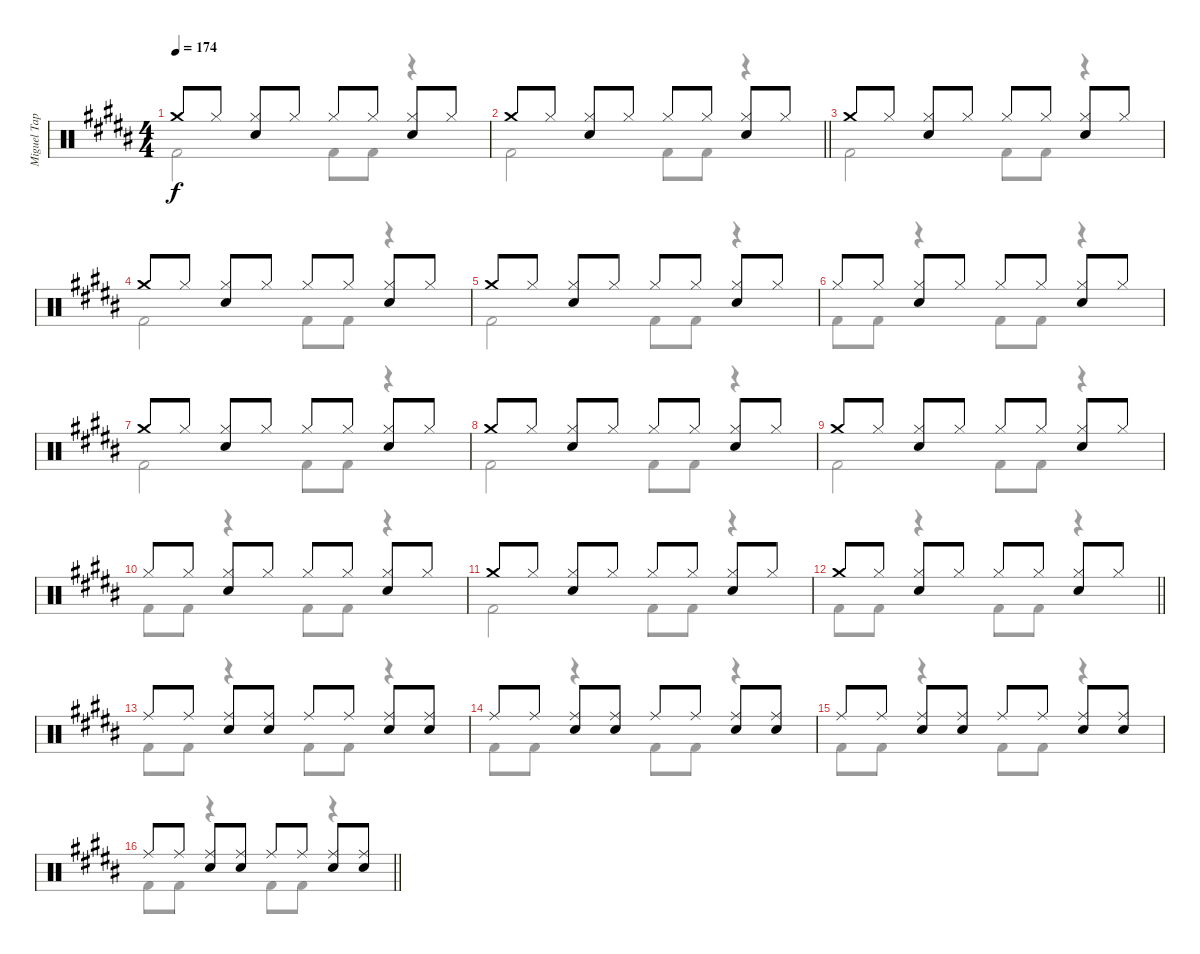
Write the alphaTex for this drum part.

\track ("Miguel Tapia" "Miguel Tap") {instrument percussion}
\staff {score}
\articulation defaults
\voice
\ts (4 4)
\tempo 174
\clef neutral
\ks b "Crash medium (hit)".8{dy f} "Hi-Hat (closed)".8
("Hi-Hat (closed)" "Snare (hit) 2").8 "Hi-Hat (closed)".8 "Hi-Hat (closed)".8 "Hi-Hat (closed)".8 ("Hi-Hat (closed)" "Snare (hit) 2").8 "Hi-Hat (closed)".8 |
\barLineRight lightlight "Crash medium (hit)".8 "Hi-Hat (closed)".8
("Hi-Hat (closed)" "Snare (hit) 2").8 "Hi-Hat (closed)".8 "Hi-Hat (closed)".8 "Hi-Hat (closed)".8 ("Hi-Hat (closed)" "Snare (hit) 2").8 "Hi-Hat (closed)".8 |
"Crash medium (hit)".8 "Hi-Hat (closed)".8 ("Hi-Hat (closed)" "Snare (hit) 2").8 "Hi-Hat (closed)".8 "Hi-Hat (closed)".8 "Hi-Hat (closed)".8 ("Hi-Hat (closed)" "Snare (hit) 2").8 "Hi-Hat (closed)".8 |
"Crash medium (hit)".8 "Hi-Hat (closed)".8 ("Hi-Hat (closed)" "Snare (hit) 2").8 "Hi-Hat (closed)".8 "Hi-Hat (closed)".8 "Hi-Hat (closed)".8 ("Hi-Hat (closed)" "Snare (hit) 2").8 "Hi-Hat (closed)".8 |
"Crash medium (hit)".8 "Hi-Hat (closed)".8 ("Hi-Hat (closed)" "Snare (hit) 2").8 "Hi-Hat (closed)".8 "Hi-Hat (closed)".8 "Hi-Hat (closed)".8 ("Hi-Hat (closed)" "Snare (hit) 2").8 "Hi-Hat (closed)".8 |
"Hi-Hat (closed)".8 "Hi-Hat (closed)".8 ("Hi-Hat (closed)" "Snare (hit) 2").8 "Hi-Hat (closed)".8 "Hi-Hat (closed)".8 "Hi-Hat (closed)".8 ("Hi-Hat (closed)" "Snare (hit) 2").8 "Hi-Hat (closed)".8 |
"Crash medium (hit)".8 "Hi-Hat (closed)".8 ("Hi-Hat (closed)" "Snare (hit) 2").8 "Hi-Hat (closed)".8 "Hi-Hat (closed)".8 "Hi-Hat (closed)".8 ("Hi-Hat (closed)" "Snare (hit) 2").8 "Hi-Hat (closed)".8 |
"Crash medium (hit)".8 "Hi-Hat (closed)".8 ("Hi-Hat (closed)" "Snare (hit) 2").8 "Hi-Hat (closed)".8 "Hi-Hat (closed)".8 "Hi-Hat (closed)".8 ("Hi-Hat (closed)" "Snare (hit) 2").8 "Hi-Hat (closed)".8 |
"Crash medium (hit)".8 "Hi-Hat (closed)".8 ("Hi-Hat (closed)" "Snare (hit) 2").8 "Hi-Hat (closed)".8 "Hi-Hat (closed)".8 "Hi-Hat (closed)".8 ("Hi-Hat (closed)" "Snare (hit) 2").8 "Hi-Hat (closed)".8 |
"Hi-Hat (closed)".8 "Hi-Hat (closed)".8 ("Hi-Hat (closed)" "Snare (hit) 2").8 "Hi-Hat (closed)".8 "Hi-Hat (closed)".8 "Hi-Hat (closed)".8 ("Hi-Hat (closed)" "Snare (hit) 2").8 "Hi-Hat (closed)".8 |
"Crash medium (hit)".8 "Hi-Hat (closed)".8 ("Hi-Hat (closed)" "Snare (hit) 2").8 "Hi-Hat (closed)".8 "Hi-Hat (closed)".8 "Hi-Hat (closed)".8 ("Hi-Hat (closed)" "Snare (hit) 2").8 "Hi-Hat (closed)".8 |
\barLineRight lightlight "Crash medium (hit)".8 "Hi-Hat (closed)".8
("Hi-Hat (closed)" "Snare (hit) 2").8 "Hi-Hat (closed)".8 "Hi-Hat (closed)".8 "Hi-Hat (closed)".8 ("Hi-Hat (closed)" "Snare (hit) 2").8 "Hi-Hat (closed)".8 |
"Ride (middle)".8 "Ride (middle)".8 ("Ride (middle)" "Snare (hit) 2").8 ("Ride (middle)" "Snare (hit) 2").8 "Ride (middle)".8 "Ride (middle)".8 ("Ride (middle)" "Snare (hit) 2").8 ("Ride (middle)" "Snare (hit) 2").8 |
"Ride (middle)".8 "Ride (middle)".8 ("Ride (middle)" "Snare (hit) 2").8 ("Ride (middle)" "Snare (hit) 2").8 "Ride (middle)".8 "Ride (middle)".8 ("Ride (middle)" "Snare (hit) 2").8 ("Ride (middle)" "Snare (hit) 2").8 |
"Ride (middle)".8 "Ride (middle)".8 ("Ride (middle)" "Snare (hit) 2").8 ("Ride (middle)" "Snare (hit) 2").8 "Ride (middle)".8 "Ride (middle)".8 ("Ride (middle)" "Snare (hit) 2").8 ("Ride (middle)" "Snare (hit) 2").8 |
\barLineRight lightlight "Ride (middle)".8 "Ride (middle)".8
("Ride (middle)" "Snare (hit) 2").8 ("Ride (middle)" "Snare (hit) 2").8 "Ride (middle)".8 "Ride (middle)".8 ("Ride (middle)" "Snare (hit) 2").8 ("Ride (middle)" "Snare (hit) 2").8
\voice
\clef neutral
\ottava regular
\simile none
\ks b "Kick (hit) 2".2{dy f} "Kick (hit) 2".8 "Kick (hit) 2".8
r.4 |
\barLineRight lightlight "Kick (hit) 2".2 "Kick (hit) 2".8 "Kick (hit) 2".8
r.4 |
"Kick (hit) 2".2 "Kick (hit) 2".8 "Kick (hit) 2".8 r.4 |
"Kick (hit) 2".2 "Kick (hit) 2".8 "Kick (hit) 2".8 r.4 |
"Kick (hit) 2".2 "Kick (hit) 2".8 "Kick (hit) 2".8 r.4 |
"Kick (hit) 2".8 "Kick (hit) 2".8 r.4 "Kick (hit) 2".8 "Kick (hit) 2".8 r.4 |
"Kick (hit) 2".2 "Kick (hit) 2".8 "Kick (hit) 2".8 r.4 |
"Kick (hit) 2".2 "Kick (hit) 2".8 "Kick (hit) 2".8 r.4 |
"Kick (hit) 2".2 "Kick (hit) 2".8 "Kick (hit) 2".8 r.4 |
"Kick (hit) 2".8 "Kick (hit) 2".8 r.4 "Kick (hit) 2".8 "Kick (hit) 2".8 r.4 |
"Kick (hit) 2".2 "Kick (hit) 2".8 "Kick (hit) 2".8 r.4 |
\barLineRight lightlight "Kick (hit) 2".8 "Kick (hit) 2".8
r.4 "Kick (hit) 2".8 "Kick (hit) 2".8 r.4 |
"Kick (hit) 2".8 "Kick (hit) 2".8 r.4 "Kick (hit) 2".8 "Kick (hit) 2".8 r.4 |
"Kick (hit) 2".8 "Kick (hit) 2".8 r.4 "Kick (hit) 2".8 "Kick (hit) 2".8 r.4 |
"Kick (hit) 2".8 "Kick (hit) 2".8 r.4 "Kick (hit) 2".8 "Kick (hit) 2".8 r.4 |
\barLineRight lightlight "Kick (hit) 2".8 "Kick (hit) 2".8
r.4 "Kick (hit) 2".8 "Kick (hit) 2".8 r.4
